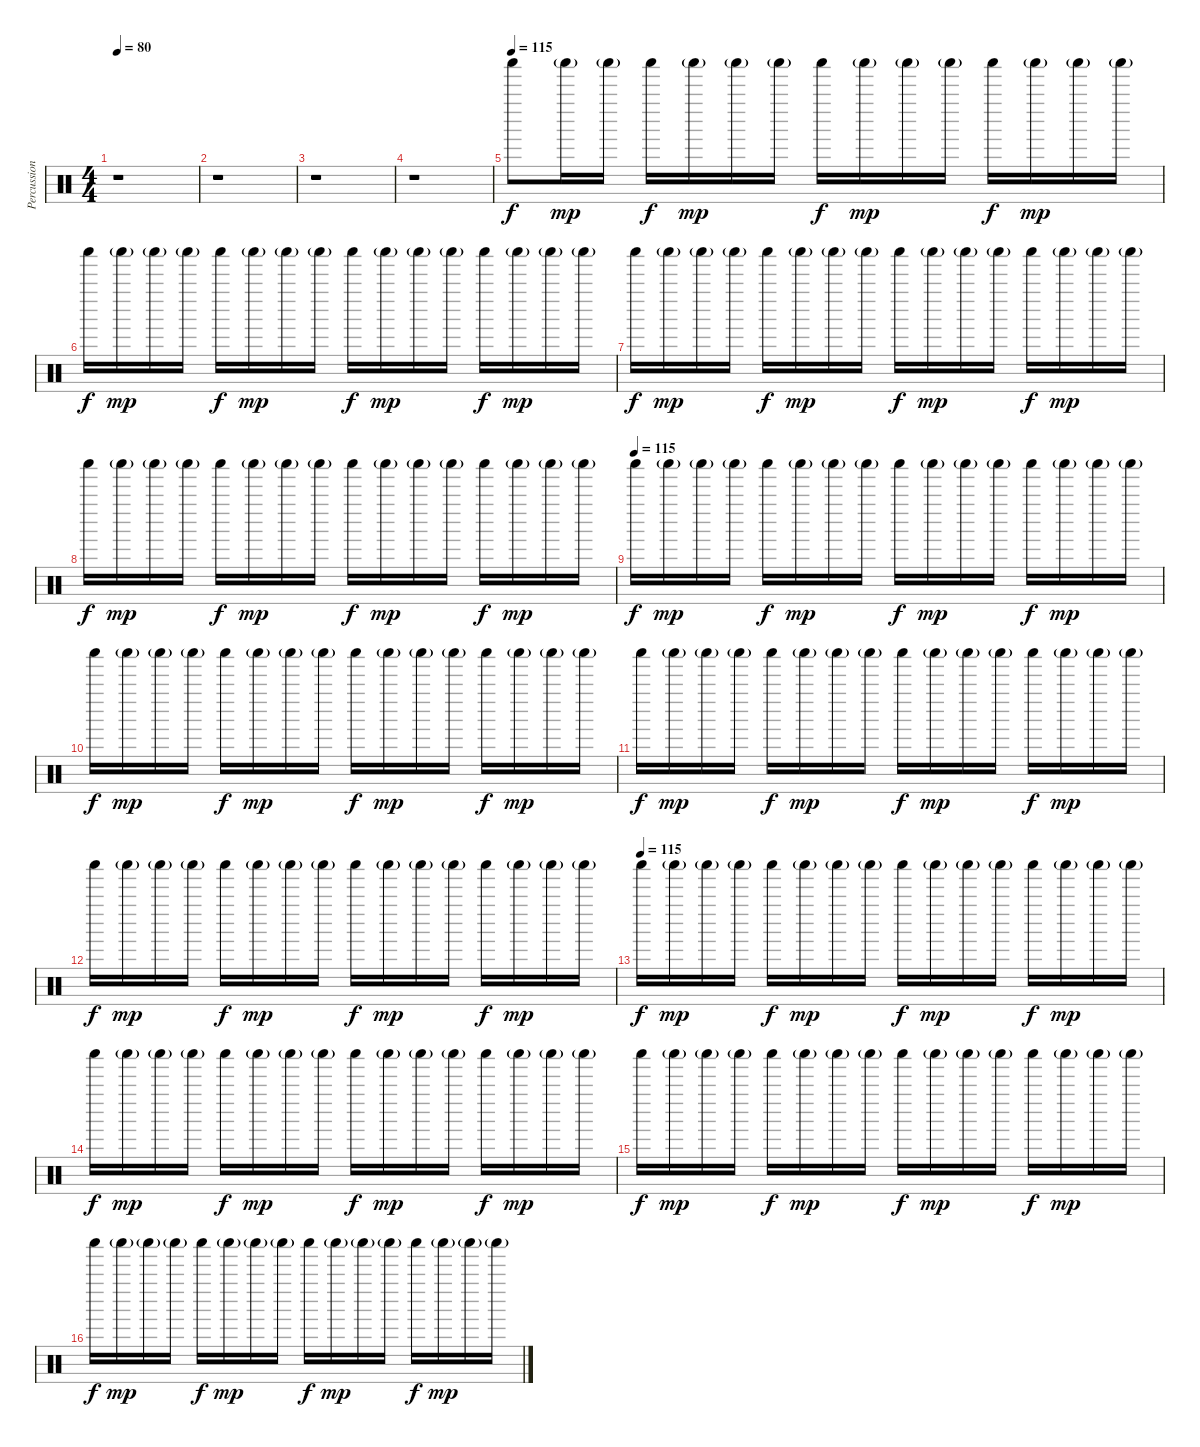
\track ("PercussionShaker" "Percussion") {instrument percussion}
\staff {score}
\articulation defaults
\ts (4 4)
\tempo 80
\clef neutral
\ks c
r.1{dy f} |
r.1 |
r.1 |
r.1 |
\tempo (115)
"Shaker (hit)".8 "Shaker (hit)"{g}.16{dy mp} "Shaker (hit)"{g}.16 "Shaker (hit)".16{dy f} "Shaker (hit)"{g}.16{dy mp} "Shaker (hit)"{g}.16 "Shaker (hit)"{g}.16 "Shaker (hit)".16{dy f} "Shaker (hit)"{g}.16{dy mp} "Shaker (hit)"{g}.16 "Shaker (hit)"{g}.16 "Shaker (hit)".16{dy f} "Shaker (hit)"{g}.16{dy mp} "Shaker (hit)"{g}.16 "Shaker (hit)"{g}.16 |
"Shaker (hit)".16{dy f} "Shaker (hit)"{g}.16{dy mp} "Shaker (hit)"{g}.16 "Shaker (hit)"{g}.16 "Shaker (hit)".16{dy f} "Shaker (hit)"{g}.16{dy mp} "Shaker (hit)"{g}.16 "Shaker (hit)"{g}.16 "Shaker (hit)".16{dy f} "Shaker (hit)"{g}.16{dy mp} "Shaker (hit)"{g}.16 "Shaker (hit)"{g}.16 "Shaker (hit)".16{dy f} "Shaker (hit)"{g}.16{dy mp} "Shaker (hit)"{g}.16 "Shaker (hit)"{g}.16 |
"Shaker (hit)".16{dy f} "Shaker (hit)"{g}.16{dy mp} "Shaker (hit)"{g}.16 "Shaker (hit)"{g}.16 "Shaker (hit)".16{dy f} "Shaker (hit)"{g}.16{dy mp} "Shaker (hit)"{g}.16 "Shaker (hit)"{g}.16 "Shaker (hit)".16{dy f} "Shaker (hit)"{g}.16{dy mp} "Shaker (hit)"{g}.16 "Shaker (hit)"{g}.16 "Shaker (hit)".16{dy f} "Shaker (hit)"{g}.16{dy mp} "Shaker (hit)"{g}.16 "Shaker (hit)"{g}.16 |
"Shaker (hit)".16{dy f} "Shaker (hit)"{g}.16{dy mp} "Shaker (hit)"{g}.16 "Shaker (hit)"{g}.16 "Shaker (hit)".16{dy f} "Shaker (hit)"{g}.16{dy mp} "Shaker (hit)"{g}.16 "Shaker (hit)"{g}.16 "Shaker (hit)".16{dy f} "Shaker (hit)"{g}.16{dy mp} "Shaker (hit)"{g}.16 "Shaker (hit)"{g}.16 "Shaker (hit)".16{dy f} "Shaker (hit)"{g}.16{dy mp} "Shaker (hit)"{g}.16 "Shaker (hit)"{g}.16 |
\tempo (115)
"Shaker (hit)".16{dy f} "Shaker (hit)"{g}.16{dy mp} "Shaker (hit)"{g}.16 "Shaker (hit)"{g}.16 "Shaker (hit)".16{dy f} "Shaker (hit)"{g}.16{dy mp} "Shaker (hit)"{g}.16 "Shaker (hit)"{g}.16 "Shaker (hit)".16{dy f} "Shaker (hit)"{g}.16{dy mp} "Shaker (hit)"{g}.16 "Shaker (hit)"{g}.16 "Shaker (hit)".16{dy f} "Shaker (hit)"{g}.16{dy mp} "Shaker (hit)"{g}.16 "Shaker (hit)"{g}.16 |
"Shaker (hit)".16{dy f} "Shaker (hit)"{g}.16{dy mp} "Shaker (hit)"{g}.16 "Shaker (hit)"{g}.16 "Shaker (hit)".16{dy f} "Shaker (hit)"{g}.16{dy mp} "Shaker (hit)"{g}.16 "Shaker (hit)"{g}.16 "Shaker (hit)".16{dy f} "Shaker (hit)"{g}.16{dy mp} "Shaker (hit)"{g}.16 "Shaker (hit)"{g}.16 "Shaker (hit)".16{dy f} "Shaker (hit)"{g}.16{dy mp} "Shaker (hit)"{g}.16 "Shaker (hit)"{g}.16 |
"Shaker (hit)".16{dy f} "Shaker (hit)"{g}.16{dy mp} "Shaker (hit)"{g}.16 "Shaker (hit)"{g}.16 "Shaker (hit)".16{dy f} "Shaker (hit)"{g}.16{dy mp} "Shaker (hit)"{g}.16 "Shaker (hit)"{g}.16 "Shaker (hit)".16{dy f} "Shaker (hit)"{g}.16{dy mp} "Shaker (hit)"{g}.16 "Shaker (hit)"{g}.16 "Shaker (hit)".16{dy f} "Shaker (hit)"{g}.16{dy mp} "Shaker (hit)"{g}.16 "Shaker (hit)"{g}.16 |
"Shaker (hit)".16{dy f} "Shaker (hit)"{g}.16{dy mp} "Shaker (hit)"{g}.16 "Shaker (hit)"{g}.16 "Shaker (hit)".16{dy f} "Shaker (hit)"{g}.16{dy mp} "Shaker (hit)"{g}.16 "Shaker (hit)"{g}.16 "Shaker (hit)".16{dy f} "Shaker (hit)"{g}.16{dy mp} "Shaker (hit)"{g}.16 "Shaker (hit)"{g}.16 "Shaker (hit)".16{dy f} "Shaker (hit)"{g}.16{dy mp} "Shaker (hit)"{g}.16 "Shaker (hit)"{g}.16 |
\tempo (115)
"Shaker (hit)".16{dy f} "Shaker (hit)"{g}.16{dy mp} "Shaker (hit)"{g}.16 "Shaker (hit)"{g}.16 "Shaker (hit)".16{dy f} "Shaker (hit)"{g}.16{dy mp} "Shaker (hit)"{g}.16 "Shaker (hit)"{g}.16 "Shaker (hit)".16{dy f} "Shaker (hit)"{g}.16{dy mp} "Shaker (hit)"{g}.16 "Shaker (hit)"{g}.16 "Shaker (hit)".16{dy f} "Shaker (hit)"{g}.16{dy mp} "Shaker (hit)"{g}.16 "Shaker (hit)"{g}.16 |
"Shaker (hit)".16{dy f} "Shaker (hit)"{g}.16{dy mp} "Shaker (hit)"{g}.16 "Shaker (hit)"{g}.16 "Shaker (hit)".16{dy f} "Shaker (hit)"{g}.16{dy mp} "Shaker (hit)"{g}.16 "Shaker (hit)"{g}.16 "Shaker (hit)".16{dy f} "Shaker (hit)"{g}.16{dy mp} "Shaker (hit)"{g}.16 "Shaker (hit)"{g}.16 "Shaker (hit)".16{dy f} "Shaker (hit)"{g}.16{dy mp} "Shaker (hit)"{g}.16 "Shaker (hit)"{g}.16 |
"Shaker (hit)".16{dy f} "Shaker (hit)"{g}.16{dy mp} "Shaker (hit)"{g}.16 "Shaker (hit)"{g}.16 "Shaker (hit)".16{dy f} "Shaker (hit)"{g}.16{dy mp} "Shaker (hit)"{g}.16 "Shaker (hit)"{g}.16 "Shaker (hit)".16{dy f} "Shaker (hit)"{g}.16{dy mp} "Shaker (hit)"{g}.16 "Shaker (hit)"{g}.16 "Shaker (hit)".16{dy f} "Shaker (hit)"{g}.16{dy mp} "Shaker (hit)"{g}.16 "Shaker (hit)"{g}.16 |
"Shaker (hit)".16{dy f} "Shaker (hit)"{g}.16{dy mp} "Shaker (hit)"{g}.16 "Shaker (hit)"{g}.16 "Shaker (hit)".16{dy f} "Shaker (hit)"{g}.16{dy mp} "Shaker (hit)"{g}.16 "Shaker (hit)"{g}.16 "Shaker (hit)".16{dy f} "Shaker (hit)"{g}.16{dy mp} "Shaker (hit)"{g}.16 "Shaker (hit)"{g}.16 "Shaker (hit)".16{dy f} "Shaker (hit)"{g}.16{dy mp} "Shaker (hit)"{g}.16 "Shaker (hit)"{g}.16
